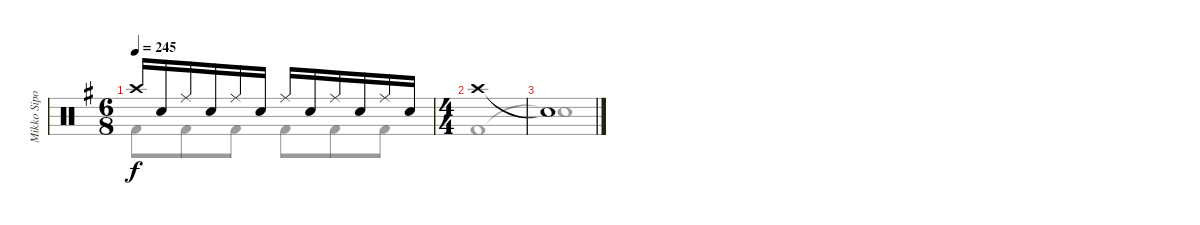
\track ("Mikko Sipola (drums)" "Mikko Sipo") {instrument percussion}
\staff {score}
\articulation defaults
\voice
\ts (6 8)
\tempo 245
\clef neutral
\ks eminor "Crash high (hit)".16{dy f} "Snare (hit) 2".16 "Ride (middle)".16 "Snare (hit) 2".16 "Ride (middle)".16 "Snare (hit) 2".16 "Ride (middle)".16 "Snare (hit) 2".16 "Ride (middle)".16 "Snare (hit) 2".16 "Ride (middle)".16 "Snare (hit) 2".16
|
\ts (4 4)
"Crash high (hit)".1 |
"Snare (hit)"{t}.1
\voice
\clef neutral
\ottava regular
\simile none
\ks eminor "Kick (hit) 2".8{dy f} "Kick (hit) 2".8 "Kick (hit) 2".8 "Kick (hit) 2".8 "Kick (hit) 2".8 "Kick (hit) 2".8
|
"Kick (hit) 2".1 |
"Snare (hit)"{t}.1
